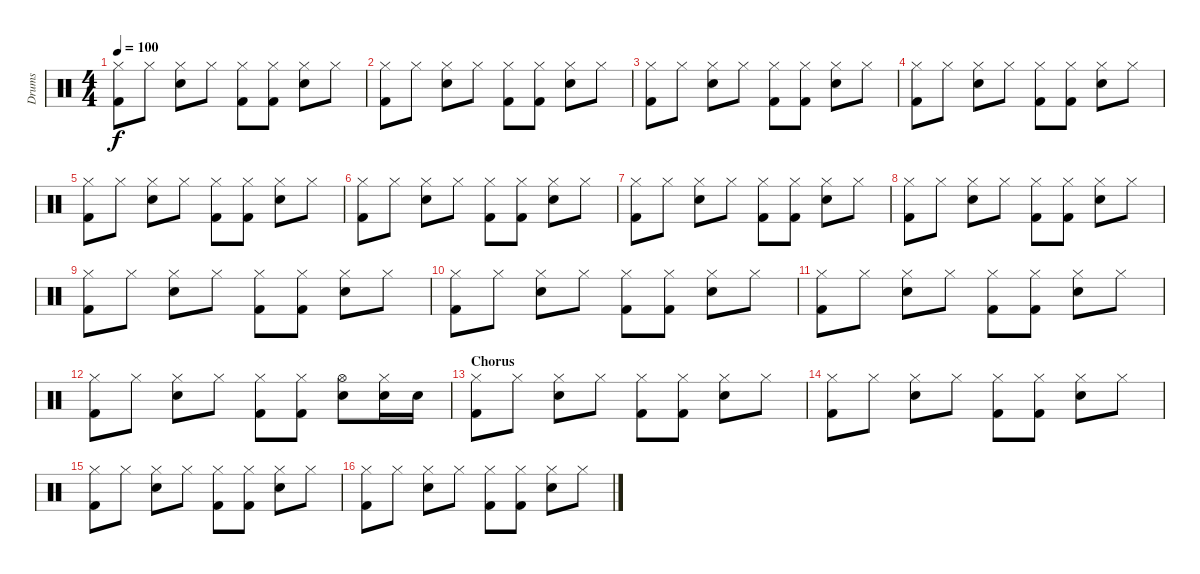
\track ("Drums" "Drums") {instrument percussion}
\staff {score}
\articulation defaults
\ts (4 4)
\tempo 100
\clef neutral
\ks c
("Hi-Hat (closed)" "Kick (hit) 2").8{dy f} "Hi-Hat (closed)".8 ("Hi-Hat (closed)" "Snare (hit) 2").8 "Hi-Hat (closed)".8 ("Hi-Hat (closed)" "Kick (hit) 2").8 ("Hi-Hat (closed)" "Kick (hit) 2").8 ("Hi-Hat (closed)" "Snare (hit) 2").8 "Hi-Hat (closed)".8 |
("Hi-Hat (closed)" "Kick (hit) 2").8 "Hi-Hat (closed)".8 ("Hi-Hat (closed)" "Snare (hit) 2").8 "Hi-Hat (closed)".8 ("Hi-Hat (closed)" "Kick (hit) 2").8 ("Hi-Hat (closed)" "Kick (hit) 2").8 ("Hi-Hat (closed)" "Snare (hit) 2").8 "Hi-Hat (closed)".8 |
("Hi-Hat (closed)" "Kick (hit) 2").8 "Hi-Hat (closed)".8 ("Hi-Hat (closed)" "Snare (hit) 2").8 "Hi-Hat (closed)".8 ("Hi-Hat (closed)" "Kick (hit) 2").8 ("Hi-Hat (closed)" "Kick (hit) 2").8 ("Hi-Hat (closed)" "Snare (hit) 2").8 "Hi-Hat (closed)".8 |
("Hi-Hat (closed)" "Kick (hit) 2").8 "Hi-Hat (closed)".8 ("Hi-Hat (closed)" "Snare (hit) 2").8 "Hi-Hat (closed)".8 ("Hi-Hat (closed)" "Kick (hit) 2").8 ("Hi-Hat (closed)" "Kick (hit) 2").8 ("Hi-Hat (closed)" "Snare (hit) 2").8 "Hi-Hat (closed)".8 |
("Hi-Hat (closed)" "Kick (hit) 2").8 "Hi-Hat (closed)".8 ("Hi-Hat (closed)" "Snare (hit) 2").8 "Hi-Hat (closed)".8 ("Hi-Hat (closed)" "Kick (hit) 2").8 ("Hi-Hat (closed)" "Kick (hit) 2").8 ("Hi-Hat (closed)" "Snare (hit) 2").8 "Hi-Hat (closed)".8 |
("Hi-Hat (closed)" "Kick (hit) 2").8 "Hi-Hat (closed)".8 ("Hi-Hat (closed)" "Snare (hit) 2").8 "Hi-Hat (closed)".8 ("Hi-Hat (closed)" "Kick (hit) 2").8 ("Hi-Hat (closed)" "Kick (hit) 2").8 ("Hi-Hat (closed)" "Snare (hit) 2").8 "Hi-Hat (closed)".8 |
("Hi-Hat (closed)" "Kick (hit) 2").8 "Hi-Hat (closed)".8 ("Hi-Hat (closed)" "Snare (hit) 2").8 "Hi-Hat (closed)".8 ("Hi-Hat (closed)" "Kick (hit) 2").8 ("Hi-Hat (closed)" "Kick (hit) 2").8 ("Hi-Hat (closed)" "Snare (hit) 2").8 "Hi-Hat (closed)".8 |
("Hi-Hat (closed)" "Kick (hit) 2").8 "Hi-Hat (closed)".8 ("Hi-Hat (closed)" "Snare (hit) 2").8 "Hi-Hat (closed)".8 ("Hi-Hat (closed)" "Kick (hit) 2").8 ("Hi-Hat (closed)" "Kick (hit) 2").8 ("Hi-Hat (closed)" "Snare (hit) 2").8 "Hi-Hat (closed)".8 |
("Hi-Hat (closed)" "Kick (hit) 2").8 "Hi-Hat (closed)".8 ("Hi-Hat (closed)" "Snare (hit) 2").8 "Hi-Hat (closed)".8 ("Hi-Hat (closed)" "Kick (hit) 2").8 ("Hi-Hat (closed)" "Kick (hit) 2").8 ("Hi-Hat (closed)" "Snare (hit) 2").8 "Hi-Hat (closed)".8 |
("Hi-Hat (closed)" "Kick (hit) 2").8 "Hi-Hat (closed)".8 ("Hi-Hat (closed)" "Snare (hit) 2").8 "Hi-Hat (closed)".8 ("Hi-Hat (closed)" "Kick (hit) 2").8 ("Hi-Hat (closed)" "Kick (hit) 2").8 ("Hi-Hat (closed)" "Snare (hit) 2").8 "Hi-Hat (closed)".8 |
("Hi-Hat (closed)" "Kick (hit) 2").8 "Hi-Hat (closed)".8 ("Hi-Hat (closed)" "Snare (hit) 2").8 "Hi-Hat (closed)".8 ("Hi-Hat (closed)" "Kick (hit) 2").8 ("Hi-Hat (closed)" "Kick (hit) 2").8 ("Hi-Hat (closed)" "Snare (hit) 2").8 "Hi-Hat (closed)".8 |
("Hi-Hat (closed)" "Kick (hit) 2").8 "Hi-Hat (closed)".8 ("Hi-Hat (closed)" "Snare (hit) 2").8 "Hi-Hat (closed)".8 ("Hi-Hat (closed)" "Kick (hit) 2").8 ("Hi-Hat (closed)" "Kick (hit) 2").8 ("Hi-Hat (open)" "Snare (hit) 2").8 ("Hi-Hat (closed)" "Snare (hit) 2").16 "Snare (hit) 2".16 |
\section ("" "Chorus")
("Hi-Hat (closed)" "Kick (hit) 2").8 "Hi-Hat (closed)".8 ("Hi-Hat (closed)" "Snare (hit) 2").8 "Hi-Hat (closed)".8 ("Hi-Hat (closed)" "Kick (hit) 2").8 ("Hi-Hat (closed)" "Kick (hit) 2").8 ("Hi-Hat (closed)" "Snare (hit) 2").8 "Hi-Hat (closed)".8 |
("Hi-Hat (closed)" "Kick (hit) 2").8 "Hi-Hat (closed)".8 ("Hi-Hat (closed)" "Snare (hit) 2").8 "Hi-Hat (closed)".8 ("Hi-Hat (closed)" "Kick (hit) 2").8 ("Hi-Hat (closed)" "Kick (hit) 2").8 ("Hi-Hat (closed)" "Snare (hit) 2").8 "Hi-Hat (closed)".8 |
("Hi-Hat (closed)" "Kick (hit) 2").8 "Hi-Hat (closed)".8 ("Hi-Hat (closed)" "Snare (hit) 2").8 "Hi-Hat (closed)".8 ("Hi-Hat (closed)" "Kick (hit) 2").8 ("Hi-Hat (closed)" "Kick (hit) 2").8 ("Hi-Hat (closed)" "Snare (hit) 2").8 "Hi-Hat (closed)".8 |
("Hi-Hat (closed)" "Kick (hit) 2").8 "Hi-Hat (closed)".8 ("Hi-Hat (closed)" "Snare (hit) 2").8 "Hi-Hat (closed)".8 ("Hi-Hat (closed)" "Kick (hit) 2").8 ("Hi-Hat (closed)" "Kick (hit) 2").8 ("Hi-Hat (closed)" "Snare (hit) 2").8 "Hi-Hat (closed)".8
